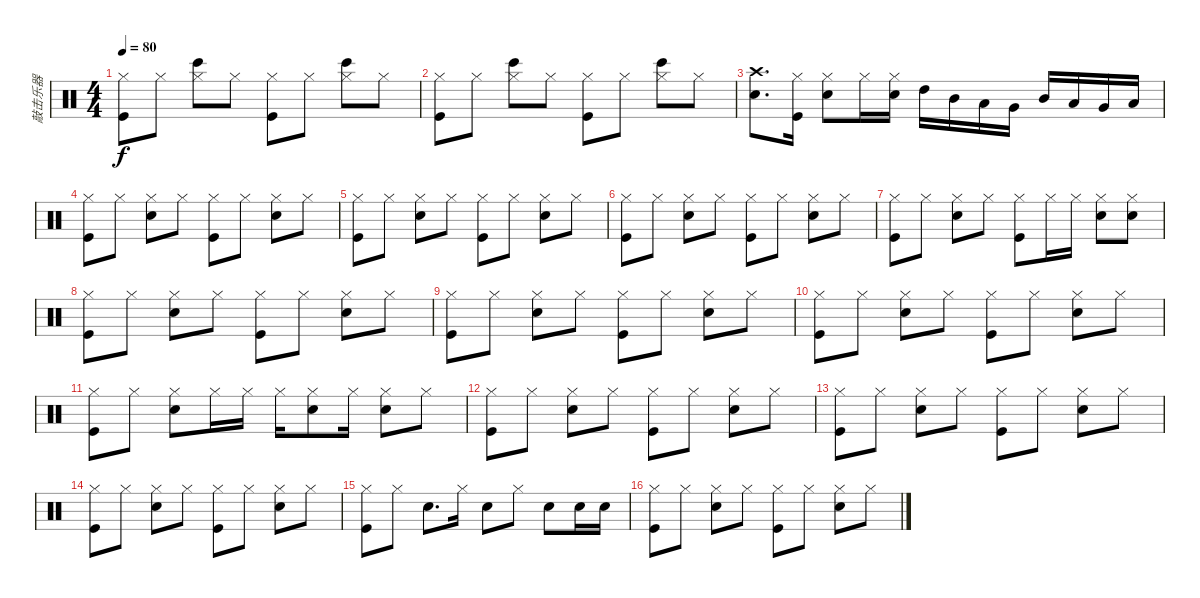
\track ("敲击乐器" "敲击乐器") {instrument percussion}
\staff {score}
\articulation defaults
\ts (4 4)
\tempo 80
\clef neutral
\ks c
("Kick (hit)" "Hi-Hat (closed)").8{dy f} "Hi-Hat (closed)".8 ("Bongo High (hit)" "Hi-Hat (closed)").8 "Hi-Hat (closed)".8 ("Kick (hit)" "Hi-Hat (closed)").8 "Hi-Hat (closed)".8 ("Bongo High (hit)" "Hi-Hat (closed)").8 "Hi-Hat (closed)".8 |
("Hi-Hat (closed)" "Kick (hit)").8 "Hi-Hat (closed)".8 ("Bongo High (hit)" "Hi-Hat (closed)").8 "Hi-Hat (closed)".8 ("Kick (hit)" "Hi-Hat (closed)").8 "Hi-Hat (closed)".8 ("Bongo High (hit)" "Hi-Hat (closed)").8 "Hi-Hat (closed)".8 |
("Crash high (hit)" "Snare (hit) 2").8{d} ("Hi-Hat (closed)" "Kick (hit)").16 ("Hi-Hat (closed)" "Snare (hit) 2").8 "Hi-Hat (closed)".16 ("Hi-Hat (closed)" "Snare (hit) 2").16 "High Tom (hit)".16 "Mid Tom (hit)".16 "Low Tom (hit)".16 "Very Low Tom (hit)".16 "Mid Tom (hit)".16 "Low Tom (hit)".16 "Very Low Tom (hit)".16 "Low Floor Tom (hit)".16 |
("Hi-Hat (closed)" "Kick (hit)").8 "Hi-Hat (closed)".8 ("Snare (hit) 2" "Hi-Hat (closed)").8 "Hi-Hat (closed)".8 ("Kick (hit)" "Hi-Hat (closed)").8 "Hi-Hat (closed)".8 ("Snare (hit) 2" "Hi-Hat (closed)").8 "Hi-Hat (closed)".8 |
("Kick (hit)" "Hi-Hat (closed)").8 "Hi-Hat (closed)".8 ("Hi-Hat (closed)" "Snare (hit) 2").8 "Hi-Hat (closed)".8 ("Kick (hit)" "Hi-Hat (closed)").8 "Hi-Hat (closed)".8 ("Hi-Hat (closed)" "Snare (hit) 2").8 "Hi-Hat (closed)".8 |
("Kick (hit)" "Hi-Hat (closed)").8 "Hi-Hat (closed)".8 ("Snare (hit) 2" "Hi-Hat (closed)").8 "Hi-Hat (closed)".8 ("Kick (hit)" "Hi-Hat (closed)").8 "Hi-Hat (closed)".8 ("Snare (hit) 2" "Hi-Hat (closed)").8 "Hi-Hat (closed)".8 |
("Kick (hit)" "Hi-Hat (closed)").8 "Hi-Hat (closed)".8 ("Hi-Hat (closed)" "Snare (hit) 2").8 "Hi-Hat (closed)".8 ("Hi-Hat (closed)" "Kick (hit)").8 "Hi-Hat (closed)".16 "Hi-Hat (closed)".16 ("Hi-Hat (closed)" "Snare (hit) 2").8 ("Hi-Hat (closed)" "Snare (hit) 2").8 |
("Kick (hit)" "Hi-Hat (closed)").8 "Hi-Hat (closed)".8 ("Hi-Hat (closed)" "Snare (hit) 2").8 "Hi-Hat (closed)".8 ("Hi-Hat (closed)" "Kick (hit)").8 "Hi-Hat (closed)".8 ("Hi-Hat (closed)" "Snare (hit) 2").8 "Hi-Hat (closed)".8 |
("Hi-Hat (closed)" "Kick (hit)").8 "Hi-Hat (closed)".8 ("Hi-Hat (closed)" "Snare (hit) 2").8 "Hi-Hat (closed)".8 ("Hi-Hat (closed)" "Kick (hit)").8 "Hi-Hat (closed)".8 ("Hi-Hat (closed)" "Snare (hit) 2").8 "Hi-Hat (closed)".8 |
("Hi-Hat (closed)" "Kick (hit)").8 "Hi-Hat (closed)".8 ("Hi-Hat (closed)" "Snare (hit) 2").8 "Hi-Hat (closed)".8 ("Hi-Hat (closed)" "Kick (hit)").8 "Hi-Hat (closed)".8 ("Hi-Hat (closed)" "Snare (hit) 2").8 "Hi-Hat (closed)".8 |
("Hi-Hat (closed)" "Kick (hit)").8 "Hi-Hat (closed)".8 ("Hi-Hat (closed)" "Snare (hit) 2").8 "Hi-Hat (closed)".16 "Hi-Hat (closed)".16 "Hi-Hat (closed)".16 ("Hi-Hat (closed)" "Snare (hit) 2").8 "Hi-Hat (closed)".16 ("Hi-Hat (closed)" "Snare (hit) 2").8 "Hi-Hat (closed)".8 |
("Hi-Hat (closed)" "Kick (hit)").8 "Hi-Hat (closed)".8 ("Hi-Hat (closed)" "Snare (hit) 2").8 "Hi-Hat (closed)".8 ("Hi-Hat (closed)" "Kick (hit)").8 "Hi-Hat (closed)".8 ("Hi-Hat (closed)" "Snare (hit) 2").8 "Hi-Hat (closed)".8 |
("Hi-Hat (closed)" "Kick (hit)").8 "Hi-Hat (closed)".8 ("Hi-Hat (closed)" "Snare (hit) 2").8 "Hi-Hat (closed)".8 ("Hi-Hat (closed)" "Kick (hit)").8 "Hi-Hat (closed)".8 ("Hi-Hat (closed)" "Snare (hit) 2").8 "Hi-Hat (closed)".8 |
("Hi-Hat (closed)" "Kick (hit)").8 "Hi-Hat (closed)".8 ("Hi-Hat (closed)" "Snare (hit) 2").8 "Hi-Hat (closed)".8 ("Hi-Hat (closed)" "Kick (hit)").8 "Hi-Hat (closed)".8 ("Hi-Hat (closed)" "Snare (hit) 2").8 "Hi-Hat (closed)".8 |
("Hi-Hat (closed)" "Kick (hit)").8 "Hi-Hat (closed)".8 "Snare (hit) 2".8{d} "Hi-Hat (closed)".16 "Snare (hit) 2".8 "Hi-Hat (closed)".8 "Snare (hit) 2".8 "Snare (hit) 2".16 "Snare (hit) 2".16 |
("Kick (hit)" "Hi-Hat (closed)").8 "Hi-Hat (closed)".8 ("Hi-Hat (closed)" "Snare (hit) 2").8 "Hi-Hat (closed)".8 ("Hi-Hat (closed)" "Kick (hit)").8 "Hi-Hat (closed)".8 ("Hi-Hat (closed)" "Snare (hit) 2").8 "Hi-Hat (closed)".8
